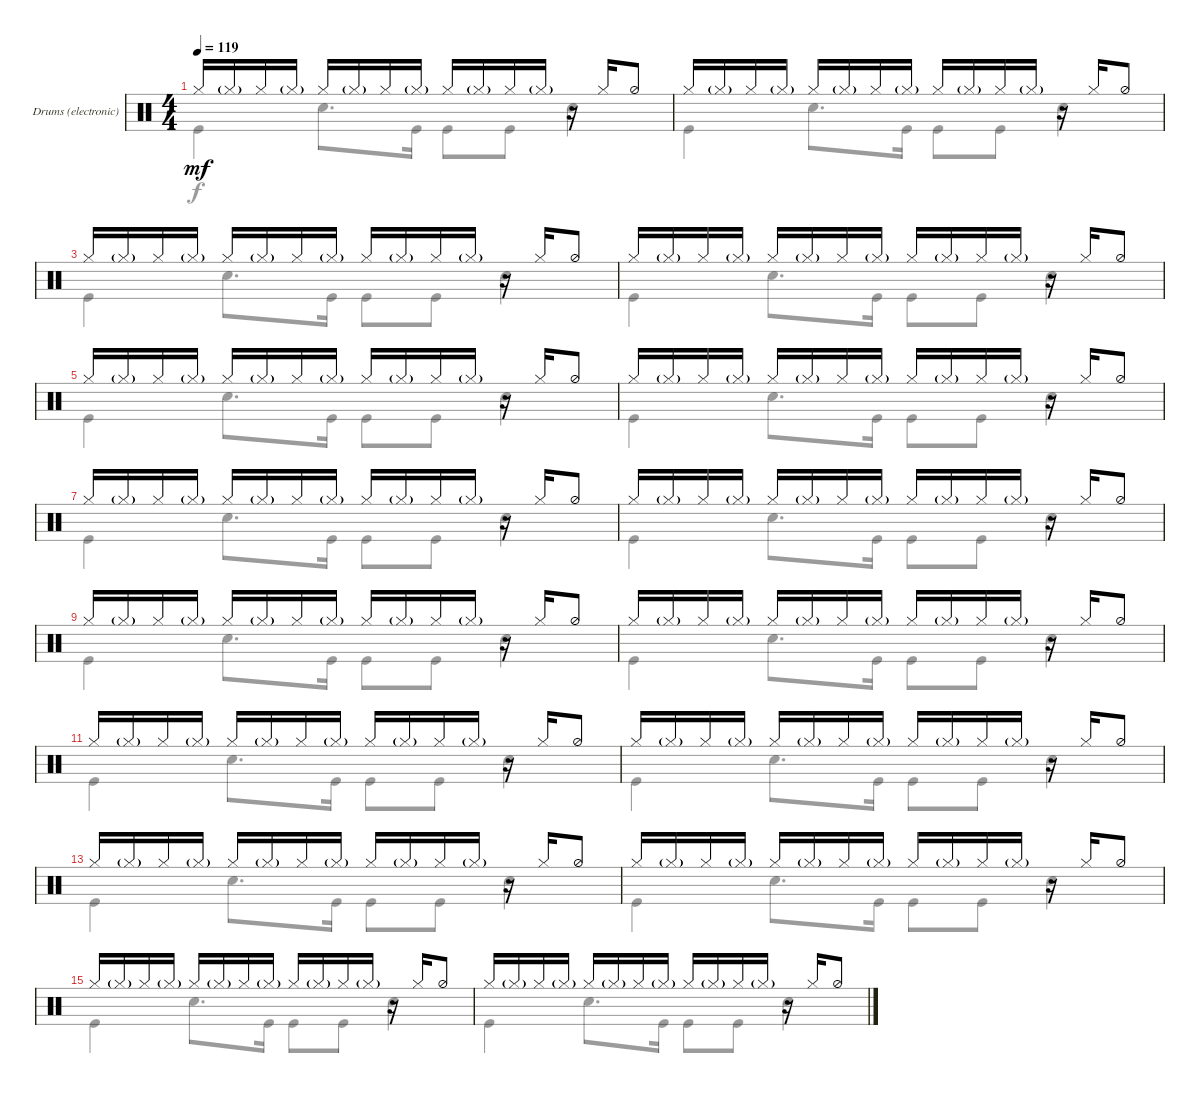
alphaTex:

\defaultSystemsLayout 4
\bracketExtendMode groupsimilarinstruments
\useSystemSignSeparator
\multiBarRest
\multiTrackTrackNamePolicy allsystems
\firstSystemTrackNameMode fullname
\firstSystemTrackNameOrientation horizontal
\otherSystemsTrackNameOrientation horizontal
\defaultBarNumberDisplay FirstOfSystem
\track ("Drums (electronic)" "Dr.") {multiBarRest instrument percussion}
\staff {score}
\articulation defaults
\voice
\ts (4 4)
\tempo 119
\clef neutral
\ks aminor "Hi-Hat (closed)".16{dy mf} "Hi-Hat (closed)"{g}.16 "Hi-Hat (closed)".16 "Hi-Hat (closed)"{g}.16 "Hi-Hat (closed)".16 "Hi-Hat (closed)"{g}.16 "Hi-Hat (closed)".16 "Hi-Hat (closed)"{g}.16 "Hi-Hat (closed)".16 "Hi-Hat (closed)"{g}.16 "Hi-Hat (closed)".16 "Hi-Hat (closed)"{g}.16
r.16 "Hi-Hat (closed)".16 "Hi-Hat (half)".8 |
"Hi-Hat (closed)".16 "Hi-Hat (closed)"{g}.16 "Hi-Hat (closed)".16 "Hi-Hat (closed)"{g}.16 "Hi-Hat (closed)".16 "Hi-Hat (closed)"{g}.16 "Hi-Hat (closed)".16 "Hi-Hat (closed)"{g}.16 "Hi-Hat (closed)".16 "Hi-Hat (closed)"{g}.16 "Hi-Hat (closed)".16 "Hi-Hat (closed)"{g}.16 r.16 "Hi-Hat (closed)".16 "Hi-Hat (half)".8 |
"Hi-Hat (closed)".16 "Hi-Hat (closed)"{g}.16 "Hi-Hat (closed)".16 "Hi-Hat (closed)"{g}.16 "Hi-Hat (closed)".16 "Hi-Hat (closed)"{g}.16 "Hi-Hat (closed)".16 "Hi-Hat (closed)"{g}.16 "Hi-Hat (closed)".16 "Hi-Hat (closed)"{g}.16 "Hi-Hat (closed)".16 "Hi-Hat (closed)"{g}.16 r.16 "Hi-Hat (closed)".16 "Hi-Hat (half)".8 |
"Hi-Hat (closed)".16 "Hi-Hat (closed)"{g}.16 "Hi-Hat (closed)".16 "Hi-Hat (closed)"{g}.16 "Hi-Hat (closed)".16 "Hi-Hat (closed)"{g}.16 "Hi-Hat (closed)".16 "Hi-Hat (closed)"{g}.16 "Hi-Hat (closed)".16 "Hi-Hat (closed)"{g}.16 "Hi-Hat (closed)".16 "Hi-Hat (closed)"{g}.16 r.16 "Hi-Hat (closed)".16 "Hi-Hat (half)".8 |
"Hi-Hat (closed)".16 "Hi-Hat (closed)"{g}.16 "Hi-Hat (closed)".16 "Hi-Hat (closed)"{g}.16 "Hi-Hat (closed)".16 "Hi-Hat (closed)"{g}.16 "Hi-Hat (closed)".16 "Hi-Hat (closed)"{g}.16 "Hi-Hat (closed)".16 "Hi-Hat (closed)"{g}.16 "Hi-Hat (closed)".16 "Hi-Hat (closed)"{g}.16 r.16 "Hi-Hat (closed)".16 "Hi-Hat (half)".8 |
"Hi-Hat (closed)".16 "Hi-Hat (closed)"{g}.16 "Hi-Hat (closed)".16 "Hi-Hat (closed)"{g}.16 "Hi-Hat (closed)".16 "Hi-Hat (closed)"{g}.16 "Hi-Hat (closed)".16 "Hi-Hat (closed)"{g}.16 "Hi-Hat (closed)".16 "Hi-Hat (closed)"{g}.16 "Hi-Hat (closed)".16 "Hi-Hat (closed)"{g}.16 r.16 "Hi-Hat (closed)".16 "Hi-Hat (half)".8 |
"Hi-Hat (closed)".16 "Hi-Hat (closed)"{g}.16 "Hi-Hat (closed)".16 "Hi-Hat (closed)"{g}.16 "Hi-Hat (closed)".16 "Hi-Hat (closed)"{g}.16 "Hi-Hat (closed)".16 "Hi-Hat (closed)"{g}.16 "Hi-Hat (closed)".16 "Hi-Hat (closed)"{g}.16 "Hi-Hat (closed)".16 "Hi-Hat (closed)"{g}.16 r.16 "Hi-Hat (closed)".16 "Hi-Hat (half)".8 |
"Hi-Hat (closed)".16 "Hi-Hat (closed)"{g}.16 "Hi-Hat (closed)".16 "Hi-Hat (closed)"{g}.16 "Hi-Hat (closed)".16 "Hi-Hat (closed)"{g}.16 "Hi-Hat (closed)".16 "Hi-Hat (closed)"{g}.16 "Hi-Hat (closed)".16 "Hi-Hat (closed)"{g}.16 "Hi-Hat (closed)".16 "Hi-Hat (closed)"{g}.16 r.16 "Hi-Hat (closed)".16 "Hi-Hat (half)".8 |
"Hi-Hat (closed)".16 "Hi-Hat (closed)"{g}.16 "Hi-Hat (closed)".16 "Hi-Hat (closed)"{g}.16 "Hi-Hat (closed)".16 "Hi-Hat (closed)"{g}.16 "Hi-Hat (closed)".16 "Hi-Hat (closed)"{g}.16 "Hi-Hat (closed)".16 "Hi-Hat (closed)"{g}.16 "Hi-Hat (closed)".16 "Hi-Hat (closed)"{g}.16 r.16 "Hi-Hat (closed)".16 "Hi-Hat (half)".8 |
"Hi-Hat (closed)".16 "Hi-Hat (closed)"{g}.16 "Hi-Hat (closed)".16 "Hi-Hat (closed)"{g}.16 "Hi-Hat (closed)".16 "Hi-Hat (closed)"{g}.16 "Hi-Hat (closed)".16 "Hi-Hat (closed)"{g}.16 "Hi-Hat (closed)".16 "Hi-Hat (closed)"{g}.16 "Hi-Hat (closed)".16 "Hi-Hat (closed)"{g}.16 r.16 "Hi-Hat (closed)".16 "Hi-Hat (half)".8 |
"Hi-Hat (closed)".16 "Hi-Hat (closed)"{g}.16 "Hi-Hat (closed)".16 "Hi-Hat (closed)"{g}.16 "Hi-Hat (closed)".16 "Hi-Hat (closed)"{g}.16 "Hi-Hat (closed)".16 "Hi-Hat (closed)"{g}.16 "Hi-Hat (closed)".16 "Hi-Hat (closed)"{g}.16 "Hi-Hat (closed)".16 "Hi-Hat (closed)"{g}.16 r.16 "Hi-Hat (closed)".16 "Hi-Hat (half)".8 |
"Hi-Hat (closed)".16 "Hi-Hat (closed)"{g}.16 "Hi-Hat (closed)".16 "Hi-Hat (closed)"{g}.16 "Hi-Hat (closed)".16 "Hi-Hat (closed)"{g}.16 "Hi-Hat (closed)".16 "Hi-Hat (closed)"{g}.16 "Hi-Hat (closed)".16 "Hi-Hat (closed)"{g}.16 "Hi-Hat (closed)".16 "Hi-Hat (closed)"{g}.16 r.16 "Hi-Hat (closed)".16 "Hi-Hat (half)".8 |
"Hi-Hat (closed)".16 "Hi-Hat (closed)"{g}.16 "Hi-Hat (closed)".16 "Hi-Hat (closed)"{g}.16 "Hi-Hat (closed)".16 "Hi-Hat (closed)"{g}.16 "Hi-Hat (closed)".16 "Hi-Hat (closed)"{g}.16 "Hi-Hat (closed)".16 "Hi-Hat (closed)"{g}.16 "Hi-Hat (closed)".16 "Hi-Hat (closed)"{g}.16 r.16 "Hi-Hat (closed)".16 "Hi-Hat (half)".8 |
"Hi-Hat (closed)".16 "Hi-Hat (closed)"{g}.16 "Hi-Hat (closed)".16 "Hi-Hat (closed)"{g}.16 "Hi-Hat (closed)".16 "Hi-Hat (closed)"{g}.16 "Hi-Hat (closed)".16 "Hi-Hat (closed)"{g}.16 "Hi-Hat (closed)".16 "Hi-Hat (closed)"{g}.16 "Hi-Hat (closed)".16 "Hi-Hat (closed)"{g}.16 r.16 "Hi-Hat (closed)".16 "Hi-Hat (half)".8 |
"Hi-Hat (closed)".16 "Hi-Hat (closed)"{g}.16 "Hi-Hat (closed)".16 "Hi-Hat (closed)"{g}.16 "Hi-Hat (closed)".16 "Hi-Hat (closed)"{g}.16 "Hi-Hat (closed)".16 "Hi-Hat (closed)"{g}.16 "Hi-Hat (closed)".16 "Hi-Hat (closed)"{g}.16 "Hi-Hat (closed)".16 "Hi-Hat (closed)"{g}.16 r.16 "Hi-Hat (closed)".16 "Hi-Hat (half)".8 |
"Hi-Hat (closed)".16 "Hi-Hat (closed)"{g}.16 "Hi-Hat (closed)".16 "Hi-Hat (closed)"{g}.16 "Hi-Hat (closed)".16 "Hi-Hat (closed)"{g}.16 "Hi-Hat (closed)".16 "Hi-Hat (closed)"{g}.16 "Hi-Hat (closed)".16 "Hi-Hat (closed)"{g}.16 "Hi-Hat (closed)".16 "Hi-Hat (closed)"{g}.16 r.16 "Hi-Hat (closed)".16 "Hi-Hat (half)".8
\voice
\clef neutral
\ottava regular
\simile none
\ks aminor "Kick (hit)".4{dy f} "Snare (hit) 2".8{d} "Kick (hit)".16 "Kick (hit)".8 "Kick (hit)".8 "Snare (hit) 2".4
|
"Kick (hit)".4 "Snare (hit) 2".8{d} "Kick (hit)".16 "Kick (hit)".8 "Kick (hit)".8 "Snare (hit) 2".4 |
"Kick (hit)".4 "Snare (hit) 2".8{d} "Kick (hit)".16 "Kick (hit)".8 "Kick (hit)".8 "Snare (hit) 2".4 |
"Kick (hit)".4 "Snare (hit) 2".8{d} "Kick (hit)".16 "Kick (hit)".8 "Kick (hit)".8 "Snare (hit) 2".4 |
"Kick (hit)".4 "Snare (hit) 2".8{d} "Kick (hit)".16 "Kick (hit)".8 "Kick (hit)".8 "Snare (hit) 2".4 |
"Kick (hit)".4 "Snare (hit) 2".8{d} "Kick (hit)".16 "Kick (hit)".8 "Kick (hit)".8 "Snare (hit) 2".4 |
"Kick (hit)".4 "Snare (hit) 2".8{d} "Kick (hit)".16 "Kick (hit)".8 "Kick (hit)".8 "Snare (hit) 2".4 |
"Kick (hit)".4 "Snare (hit) 2".8{d} "Kick (hit)".16 "Kick (hit)".8 "Kick (hit)".8 "Snare (hit) 2".4 |
"Kick (hit)".4 "Snare (hit) 2".8{d} "Kick (hit)".16 "Kick (hit)".8 "Kick (hit)".8 "Snare (hit) 2".4 |
"Kick (hit)".4 "Snare (hit) 2".8{d} "Kick (hit)".16 "Kick (hit)".8 "Kick (hit)".8 "Snare (hit) 2".4 |
"Kick (hit)".4 "Snare (hit) 2".8{d} "Kick (hit)".16 "Kick (hit)".8 "Kick (hit)".8 "Snare (hit) 2".4 |
"Kick (hit)".4 "Snare (hit) 2".8{d} "Kick (hit)".16 "Kick (hit)".8 "Kick (hit)".8 "Snare (hit) 2".4 |
"Kick (hit)".4 "Snare (hit) 2".8{d} "Kick (hit)".16 "Kick (hit)".8 "Kick (hit)".8 "Snare (hit) 2".4 |
"Kick (hit)".4 "Snare (hit) 2".8{d} "Kick (hit)".16 "Kick (hit)".8 "Kick (hit)".8 "Snare (hit) 2".4 |
"Kick (hit)".4 "Snare (hit) 2".8{d} "Kick (hit)".16 "Kick (hit)".8 "Kick (hit)".8 "Snare (hit) 2".4 |
"Kick (hit)".4 "Snare (hit) 2".8{d} "Kick (hit)".16 "Kick (hit)".8 "Kick (hit)".8 "Snare (hit) 2".4
